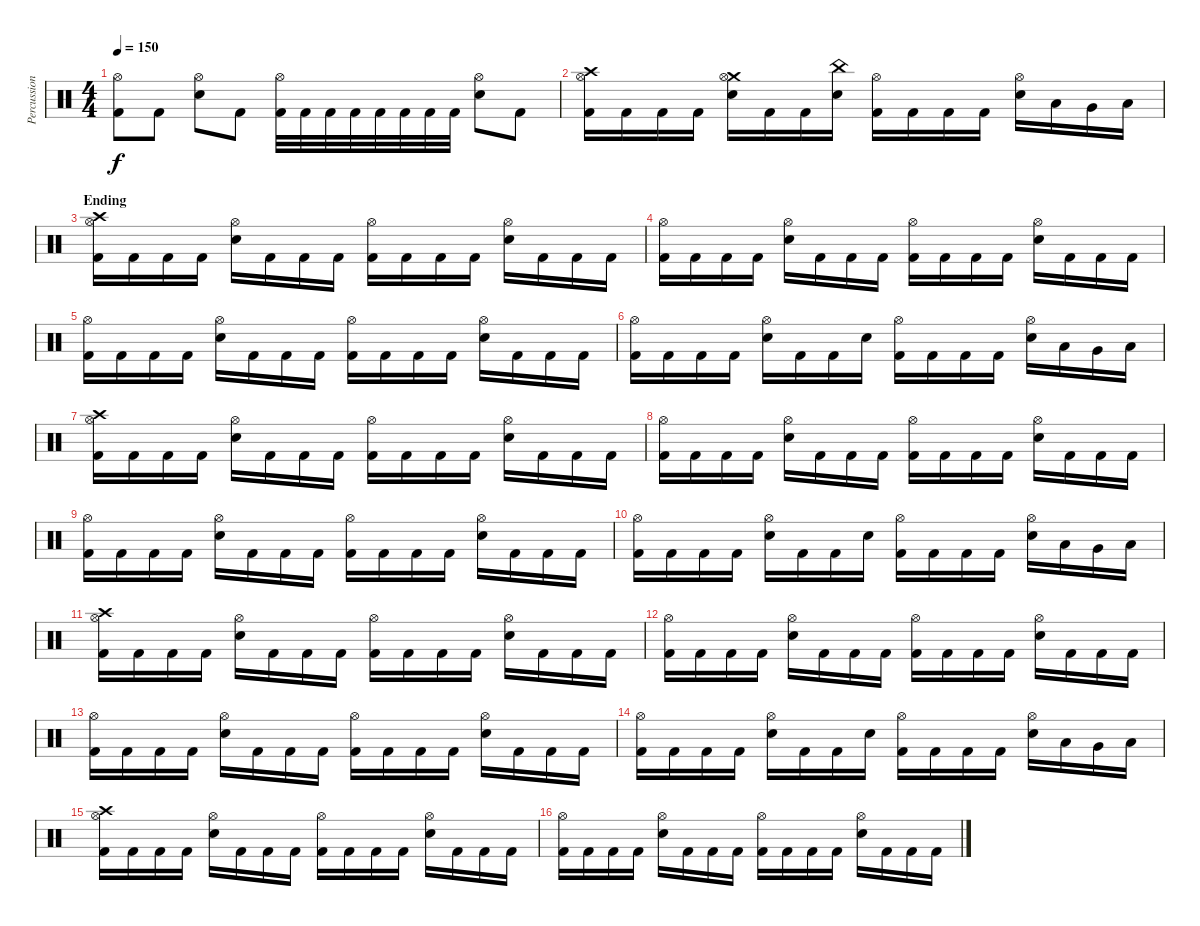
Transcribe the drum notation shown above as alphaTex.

\track ("Percussions" "Percussion") {instrument percussion}
\staff {score}
\articulation defaults
\ts (4 4)
\tempo 150
\clef neutral
\ks c
("Hi-Hat (open)" "Kick (hit) 2").8{dy f} "Kick (hit) 2".8 ("Hi-Hat (open)" "Electric Snare (hit)").8 "Kick (hit) 2".8 ("Hi-Hat (open)" "Kick (hit) 2").32 "Kick (hit) 2".32 "Kick (hit) 2".32 "Kick (hit) 2".32 "Kick (hit) 2".32 "Kick (hit) 2".32 "Kick (hit) 2".32 "Kick (hit) 2".32 ("Hi-Hat (open)" "Electric Snare (hit)").8 "Kick (hit) 2".8 |
("Crash high (hit)" "Hi-Hat (open)" "Kick (hit) 2").16 "Kick (hit) 2".16 "Kick (hit) 2".16 "Kick (hit) 2".16 ("Crash medium (hit)" "Hi-Hat (open)" "Electric Snare (hit)").16 "Kick (hit) 2".16 "Kick (hit) 2".16 ("China (hit)" "Electric Snare (hit)").16 ("Hi-Hat (open)" "Kick (hit) 2").16 "Kick (hit) 2".16 "Kick (hit) 2".16 "Kick (hit) 2".16 ("Hi-Hat (open)" "Electric Snare (hit)").16 "Low Tom (hit)".16 "Very Low Tom (hit)".16 "Low Floor Tom (hit)".16 |
\section ("" "Ending")
("Crash high (hit)" "Hi-Hat (open)" "Kick (hit) 2").16 "Kick (hit) 2".16 "Kick (hit) 2".16 "Kick (hit) 2".16 ("Hi-Hat (open)" "Electric Snare (hit)").16 "Kick (hit) 2".16 "Kick (hit) 2".16 "Kick (hit) 2".16 ("Hi-Hat (open)" "Kick (hit) 2").16 "Kick (hit) 2".16 "Kick (hit) 2".16 "Kick (hit) 2".16 ("Hi-Hat (open)" "Electric Snare (hit)").16 "Kick (hit) 2".16 "Kick (hit) 2".16 "Kick (hit) 2".16 |
("Hi-Hat (open)" "Kick (hit) 2").16 "Kick (hit) 2".16 "Kick (hit) 2".16 "Kick (hit) 2".16 ("Hi-Hat (open)" "Electric Snare (hit)").16 "Kick (hit) 2".16 "Kick (hit) 2".16 "Kick (hit) 2".16 ("Hi-Hat (open)" "Kick (hit) 2").16 "Kick (hit) 2".16 "Kick (hit) 2".16 "Kick (hit) 2".16 ("Hi-Hat (open)" "Electric Snare (hit)").16 "Kick (hit) 2".16 "Kick (hit) 2".16 "Kick (hit) 2".16 |
("Hi-Hat (open)" "Kick (hit) 2").16 "Kick (hit) 2".16 "Kick (hit) 2".16 "Kick (hit) 2".16 ("Hi-Hat (open)" "Electric Snare (hit)").16 "Kick (hit) 2".16 "Kick (hit) 2".16 "Kick (hit) 2".16 ("Hi-Hat (open)" "Kick (hit) 2").16 "Kick (hit) 2".16 "Kick (hit) 2".16 "Kick (hit) 2".16 ("Hi-Hat (open)" "Electric Snare (hit)").16 "Kick (hit) 2".16 "Kick (hit) 2".16 "Kick (hit) 2".16 |
("Hi-Hat (open)" "Kick (hit) 2").16 "Kick (hit) 2".16 "Kick (hit) 2".16 "Kick (hit) 2".16 ("Hi-Hat (open)" "Electric Snare (hit)").16 "Kick (hit) 2".16 "Kick (hit) 2".16 "Electric Snare (hit)".16 ("Hi-Hat (open)" "Kick (hit) 2").16 "Kick (hit) 2".16 "Kick (hit) 2".16 "Kick (hit) 2".16 ("Hi-Hat (open)" "Electric Snare (hit)").16 "Low Tom (hit)".16 "Very Low Tom (hit)".16 "Low Floor Tom (hit)".16 |
("Crash high (hit)" "Hi-Hat (open)" "Kick (hit) 2").16 "Kick (hit) 2".16 "Kick (hit) 2".16 "Kick (hit) 2".16 ("Hi-Hat (open)" "Electric Snare (hit)").16 "Kick (hit) 2".16 "Kick (hit) 2".16 "Kick (hit) 2".16 ("Hi-Hat (open)" "Kick (hit) 2").16 "Kick (hit) 2".16 "Kick (hit) 2".16 "Kick (hit) 2".16 ("Hi-Hat (open)" "Electric Snare (hit)").16 "Kick (hit) 2".16 "Kick (hit) 2".16 "Kick (hit) 2".16 |
("Hi-Hat (open)" "Kick (hit) 2").16 "Kick (hit) 2".16 "Kick (hit) 2".16 "Kick (hit) 2".16 ("Hi-Hat (open)" "Electric Snare (hit)").16 "Kick (hit) 2".16 "Kick (hit) 2".16 "Kick (hit) 2".16 ("Hi-Hat (open)" "Kick (hit) 2").16 "Kick (hit) 2".16 "Kick (hit) 2".16 "Kick (hit) 2".16 ("Hi-Hat (open)" "Electric Snare (hit)").16 "Kick (hit) 2".16 "Kick (hit) 2".16 "Kick (hit) 2".16 |
("Hi-Hat (open)" "Kick (hit) 2").16 "Kick (hit) 2".16 "Kick (hit) 2".16 "Kick (hit) 2".16 ("Hi-Hat (open)" "Electric Snare (hit)").16 "Kick (hit) 2".16 "Kick (hit) 2".16 "Kick (hit) 2".16 ("Hi-Hat (open)" "Kick (hit) 2").16 "Kick (hit) 2".16 "Kick (hit) 2".16 "Kick (hit) 2".16 ("Hi-Hat (open)" "Electric Snare (hit)").16 "Kick (hit) 2".16 "Kick (hit) 2".16 "Kick (hit) 2".16 |
("Hi-Hat (open)" "Kick (hit) 2").16 "Kick (hit) 2".16 "Kick (hit) 2".16 "Kick (hit) 2".16 ("Hi-Hat (open)" "Electric Snare (hit)").16 "Kick (hit) 2".16 "Kick (hit) 2".16 "Electric Snare (hit)".16 ("Hi-Hat (open)" "Kick (hit) 2").16 "Kick (hit) 2".16 "Kick (hit) 2".16 "Kick (hit) 2".16 ("Hi-Hat (open)" "Electric Snare (hit)").16 "Low Tom (hit)".16 "Very Low Tom (hit)".16 "Low Floor Tom (hit)".16 |
("Crash high (hit)" "Hi-Hat (open)" "Kick (hit) 2").16 "Kick (hit) 2".16 "Kick (hit) 2".16 "Kick (hit) 2".16 ("Hi-Hat (open)" "Electric Snare (hit)").16 "Kick (hit) 2".16 "Kick (hit) 2".16 "Kick (hit) 2".16 ("Hi-Hat (open)" "Kick (hit) 2").16 "Kick (hit) 2".16 "Kick (hit) 2".16 "Kick (hit) 2".16 ("Hi-Hat (open)" "Electric Snare (hit)").16 "Kick (hit) 2".16 "Kick (hit) 2".16 "Kick (hit) 2".16 |
("Hi-Hat (open)" "Kick (hit) 2").16 "Kick (hit) 2".16 "Kick (hit) 2".16 "Kick (hit) 2".16 ("Hi-Hat (open)" "Electric Snare (hit)").16 "Kick (hit) 2".16 "Kick (hit) 2".16 "Kick (hit) 2".16 ("Hi-Hat (open)" "Kick (hit) 2").16 "Kick (hit) 2".16 "Kick (hit) 2".16 "Kick (hit) 2".16 ("Hi-Hat (open)" "Electric Snare (hit)").16 "Kick (hit) 2".16 "Kick (hit) 2".16 "Kick (hit) 2".16 |
("Hi-Hat (open)" "Kick (hit) 2").16 "Kick (hit) 2".16 "Kick (hit) 2".16 "Kick (hit) 2".16 ("Hi-Hat (open)" "Electric Snare (hit)").16 "Kick (hit) 2".16 "Kick (hit) 2".16 "Kick (hit) 2".16 ("Hi-Hat (open)" "Kick (hit) 2").16 "Kick (hit) 2".16 "Kick (hit) 2".16 "Kick (hit) 2".16 ("Hi-Hat (open)" "Electric Snare (hit)").16 "Kick (hit) 2".16 "Kick (hit) 2".16 "Kick (hit) 2".16 |
("Hi-Hat (open)" "Kick (hit) 2").16 "Kick (hit) 2".16 "Kick (hit) 2".16 "Kick (hit) 2".16 ("Hi-Hat (open)" "Electric Snare (hit)").16 "Kick (hit) 2".16 "Kick (hit) 2".16 "Electric Snare (hit)".16 ("Hi-Hat (open)" "Kick (hit) 2").16 "Kick (hit) 2".16 "Kick (hit) 2".16 "Kick (hit) 2".16 ("Hi-Hat (open)" "Electric Snare (hit)").16 "Low Tom (hit)".16 "Very Low Tom (hit)".16 "Low Floor Tom (hit)".16 |
("Crash high (hit)" "Hi-Hat (open)" "Kick (hit) 2").16 "Kick (hit) 2".16 "Kick (hit) 2".16 "Kick (hit) 2".16 ("Hi-Hat (open)" "Electric Snare (hit)").16 "Kick (hit) 2".16 "Kick (hit) 2".16 "Kick (hit) 2".16 ("Hi-Hat (open)" "Kick (hit) 2").16 "Kick (hit) 2".16 "Kick (hit) 2".16 "Kick (hit) 2".16 ("Hi-Hat (open)" "Electric Snare (hit)").16 "Kick (hit) 2".16 "Kick (hit) 2".16 "Kick (hit) 2".16 |
("Hi-Hat (open)" "Kick (hit) 2").16 "Kick (hit) 2".16 "Kick (hit) 2".16 "Kick (hit) 2".16 ("Hi-Hat (open)" "Electric Snare (hit)").16 "Kick (hit) 2".16 "Kick (hit) 2".16 "Kick (hit) 2".16 ("Hi-Hat (open)" "Kick (hit) 2").16 "Kick (hit) 2".16 "Kick (hit) 2".16 "Kick (hit) 2".16 ("Hi-Hat (open)" "Electric Snare (hit)").16 "Kick (hit) 2".16 "Kick (hit) 2".16 "Kick (hit) 2".16
